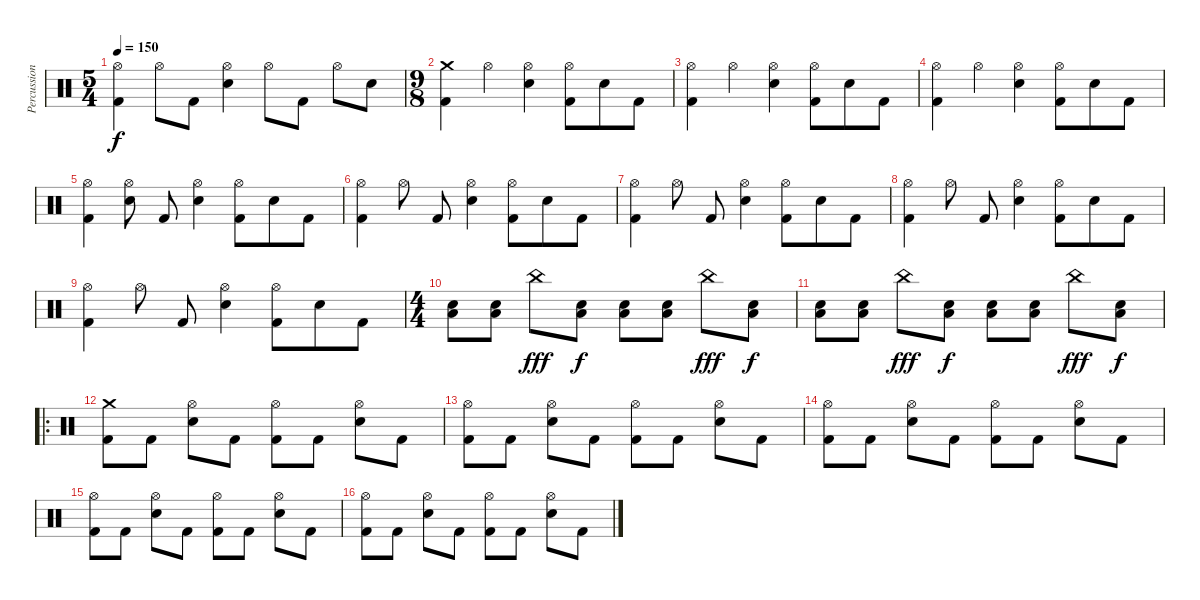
\track ("Percussion" "Percussion") {instrument percussion}
\staff {score}
\articulation defaults
\ts (5 4)
\tempo 150
\clef neutral
\ks aminor
("Hi-Hat (open)" "Kick (hit) 2").4{dy f} "Hi-Hat (open)".8 "Kick (hit) 2".8 ("Hi-Hat (open)" "Electric Snare (hit)").4 "Hi-Hat (open)".8 "Kick (hit) 2".8 "Hi-Hat (open)".8 "Electric Snare (hit)".8 |
\ts (9 8)
("Crash medium (hit)" "Kick (hit) 2").4 "Hi-Hat (open)".4 ("Hi-Hat (open)" "Electric Snare (hit)").4 ("Hi-Hat (open)" "Kick (hit) 2").8 "Electric Snare (hit)".8 "Kick (hit) 2".8 |
("Hi-Hat (open)" "Kick (hit) 2").4 "Hi-Hat (open)".4 ("Hi-Hat (open)" "Electric Snare (hit)").4 ("Hi-Hat (open)" "Kick (hit) 2").8 "Electric Snare (hit)".8 "Kick (hit) 2".8 |
("Hi-Hat (open)" "Kick (hit) 2").4 "Hi-Hat (open)".4 ("Hi-Hat (open)" "Electric Snare (hit)").4 ("Hi-Hat (open)" "Kick (hit) 2").8 "Electric Snare (hit)".8 "Kick (hit) 2".8 |
("Hi-Hat (open)" "Kick (hit) 2").4 ("Hi-Hat (open)" "Electric Snare (hit)").8 "Kick (hit) 2".8 ("Hi-Hat (open)" "Electric Snare (hit)").4 ("Hi-Hat (open)" "Kick (hit) 2").8 "Electric Snare (hit)".8 "Kick (hit) 2".8 |
("Hi-Hat (open)" "Kick (hit) 2").4 "Hi-Hat (open)".8 "Kick (hit) 2".8 ("Hi-Hat (open)" "Electric Snare (hit)").4 ("Hi-Hat (open)" "Kick (hit) 2").8 "Electric Snare (hit)".8 "Kick (hit) 2".8 |
("Hi-Hat (open)" "Kick (hit) 2").4 "Hi-Hat (open)".8 "Kick (hit) 2".8 ("Hi-Hat (open)" "Electric Snare (hit)").4 ("Hi-Hat (open)" "Kick (hit) 2").8 "Electric Snare (hit)".8 "Kick (hit) 2".8 |
("Hi-Hat (open)" "Kick (hit) 2").4 "Hi-Hat (open)".8 "Kick (hit) 2".8 ("Hi-Hat (open)" "Electric Snare (hit)").4 ("Hi-Hat (open)" "Kick (hit) 2").8 "Electric Snare (hit)".8 "Kick (hit) 2".8 |
("Hi-Hat (open)" "Kick (hit) 2").4 "Hi-Hat (open)".8 "Kick (hit) 2".8 ("Hi-Hat (open)" "Electric Snare (hit)").4 ("Hi-Hat (open)" "Kick (hit) 2").8 "Electric Snare (hit)".8 "Kick (hit) 2".8 |
\ts (4 4)
("Low Floor Tom (hit)" "Electric Snare (hit)").8 ("Low Floor Tom (hit)" "Electric Snare (hit)").8 "China (hit)".8{dy fff} ("Low Floor Tom (hit)" "Electric Snare (hit)").8{dy f} ("Low Floor Tom (hit)" "Electric Snare (hit)").8 ("Low Floor Tom (hit)" "Electric Snare (hit)").8 "China (hit)".8{dy fff} ("Low Floor Tom (hit)" "Electric Snare (hit)").8{dy f} |
("Low Floor Tom (hit)" "Electric Snare (hit)").8 ("Low Floor Tom (hit)" "Electric Snare (hit)").8 "China (hit)".8{dy fff} ("Low Floor Tom (hit)" "Electric Snare (hit)").8{dy f} ("Low Floor Tom (hit)" "Electric Snare (hit)").8 ("Low Floor Tom (hit)" "Electric Snare (hit)").8 "China (hit)".8{dy fff} ("Low Floor Tom (hit)" "Electric Snare (hit)").8{dy f} |
\ro
("Crash medium (hit)" "Kick (hit) 2").8 "Kick (hit) 2".8 ("Hi-Hat (open)" "Electric Snare (hit)").8 "Kick (hit) 2".8 ("Hi-Hat (open)" "Kick (hit) 2").8 "Kick (hit) 2".8 ("Hi-Hat (open)" "Electric Snare (hit)").8 "Kick (hit) 2".8 |
("Hi-Hat (open)" "Kick (hit) 2").8 "Kick (hit) 2".8 ("Hi-Hat (open)" "Electric Snare (hit)").8 "Kick (hit) 2".8 ("Hi-Hat (open)" "Kick (hit) 2").8 "Kick (hit) 2".8 ("Hi-Hat (open)" "Electric Snare (hit)").8 "Kick (hit) 2".8 |
("Hi-Hat (open)" "Kick (hit) 2").8 "Kick (hit) 2".8 ("Hi-Hat (open)" "Electric Snare (hit)").8 "Kick (hit) 2".8 ("Hi-Hat (open)" "Kick (hit) 2").8 "Kick (hit) 2".8 ("Hi-Hat (open)" "Electric Snare (hit)").8 "Kick (hit) 2".8 |
("Hi-Hat (open)" "Kick (hit) 2").8 "Kick (hit) 2".8 ("Hi-Hat (open)" "Electric Snare (hit)").8 "Kick (hit) 2".8 ("Hi-Hat (open)" "Kick (hit) 2").8 "Kick (hit) 2".8 ("Hi-Hat (open)" "Electric Snare (hit)").8 "Kick (hit) 2".8 |
("Hi-Hat (open)" "Kick (hit) 2").8 "Kick (hit) 2".8 ("Hi-Hat (open)" "Electric Snare (hit)").8 "Kick (hit) 2".8 ("Hi-Hat (open)" "Kick (hit) 2").8 "Kick (hit) 2".8 ("Hi-Hat (open)" "Electric Snare (hit)").8 "Kick (hit) 2".8
